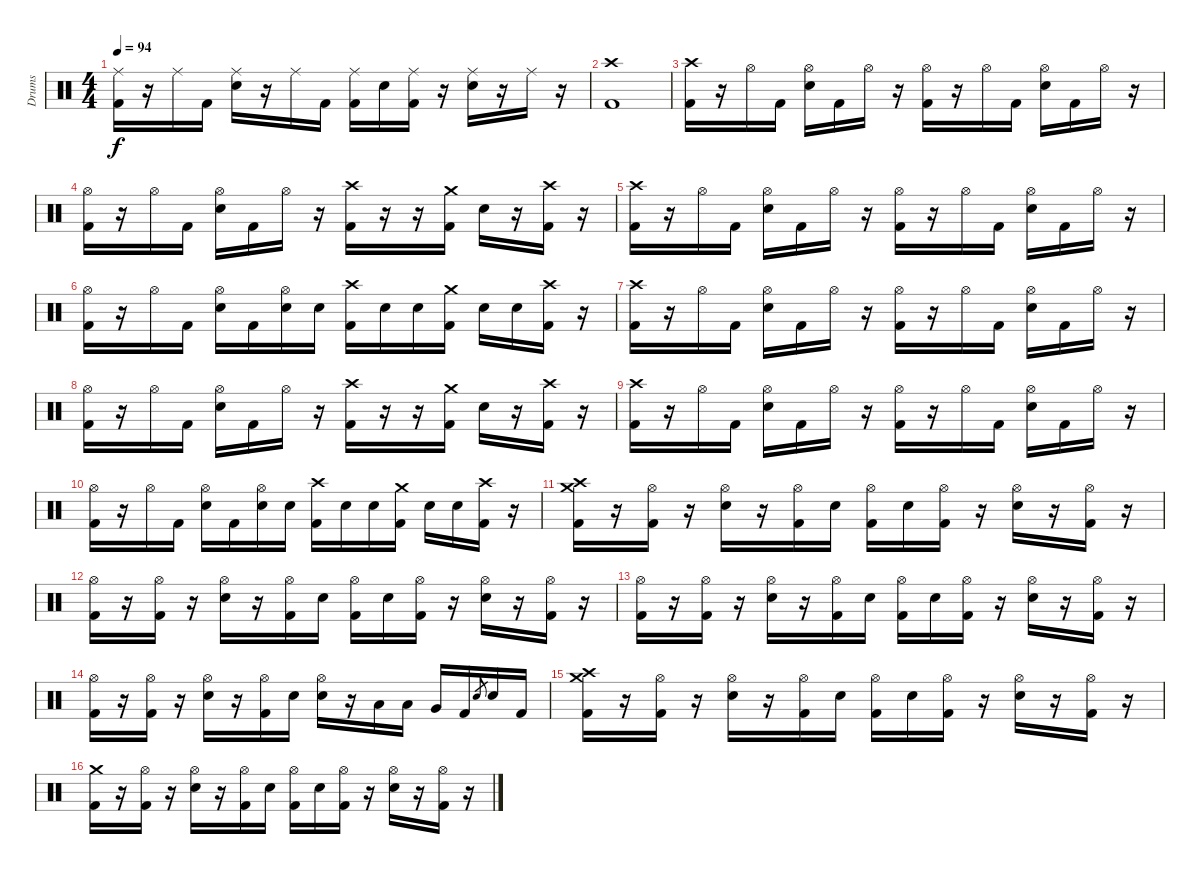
\track ("Drums" "Drums") {instrument percussion}
\staff {score}
\articulation defaults
\ts (4 4)
\tempo 94
\clef neutral
\ks c
("Ride (middle)" "Kick (hit) 2").16{dy f} r.16 "Ride (middle)".16 "Kick (hit) 2".16 ("Ride (middle)" "Snare (hit) 2").16 r.16 "Ride (middle)".16 "Kick (hit) 2".16 ("Ride (middle)" "Kick (hit) 2").16 "Snare (hit) 2".16 ("Ride (middle)" "Kick (hit) 2").16 r.16 ("Ride (middle)" "Snare (hit) 2").16 r.16 "Ride (middle)".16 r.16 |
("Crash high (hit)" "Kick (hit) 2").1 |
("Crash high (hit)" "Kick (hit) 2").16 r.16 "Hi-Hat (open)".16 "Kick (hit) 2".16 ("Hi-Hat (open)" "Snare (hit) 2").16 "Kick (hit) 2".16 "Hi-Hat (open)".16 r.16 ("Hi-Hat (open)" "Kick (hit) 2").16 r.16 "Hi-Hat (open)".16 "Kick (hit) 2".16 ("Hi-Hat (open)" "Snare (hit) 2").16 "Kick (hit) 2".16 "Hi-Hat (open)".16 r.16 |
("Hi-Hat (open)" "Kick (hit) 2").16 r.16 "Hi-Hat (open)".16 "Kick (hit) 2".16 ("Hi-Hat (open)" "Snare (hit) 2").16 "Kick (hit) 2".16 "Hi-Hat (open)".16 r.16 ("Crash high (hit)" "Kick (hit) 2").16 r.16 r.16 ("Crash medium (hit)" "Kick (hit) 2").16 "Snare (hit) 2".16 r.16 ("Crash high (hit)" "Kick (hit) 2").16 r.16 |
("Crash high (hit)" "Kick (hit) 2").16 r.16 "Hi-Hat (open)".16 "Kick (hit) 2".16 ("Hi-Hat (open)" "Snare (hit) 2").16 "Kick (hit) 2".16 "Hi-Hat (open)".16 r.16 ("Hi-Hat (open)" "Kick (hit) 2").16 r.16 "Hi-Hat (open)".16 "Kick (hit) 2".16 ("Hi-Hat (open)" "Snare (hit) 2").16 "Kick (hit) 2".16 "Hi-Hat (open)".16 r.16 |
("Hi-Hat (open)" "Kick (hit) 2").16 r.16 "Hi-Hat (open)".16 "Kick (hit) 2".16 ("Hi-Hat (open)" "Snare (hit) 2").16 "Kick (hit) 2".16 ("Hi-Hat (open)" "Snare (hit) 2").16 "Snare (hit) 2".16 ("Crash high (hit)" "Kick (hit) 2").16 "Snare (hit) 2".16 "Snare (hit) 2".16 ("Crash medium (hit)" "Kick (hit) 2").16 "Snare (hit) 2".16 "Snare (hit) 2".16 ("Crash high (hit)" "Kick (hit) 2").16 r.16 |
("Crash high (hit)" "Kick (hit) 2").16 r.16 "Hi-Hat (open)".16 "Kick (hit) 2".16 ("Hi-Hat (open)" "Snare (hit) 2").16 "Kick (hit) 2".16 "Hi-Hat (open)".16 r.16 ("Hi-Hat (open)" "Kick (hit) 2").16 r.16 "Hi-Hat (open)".16 "Kick (hit) 2".16 ("Hi-Hat (open)" "Snare (hit) 2").16 "Kick (hit) 2".16 "Hi-Hat (open)".16 r.16 |
("Hi-Hat (open)" "Kick (hit) 2").16 r.16 "Hi-Hat (open)".16 "Kick (hit) 2".16 ("Hi-Hat (open)" "Snare (hit) 2").16 "Kick (hit) 2".16 "Hi-Hat (open)".16 r.16 ("Crash high (hit)" "Kick (hit) 2").16 r.16 r.16 ("Crash medium (hit)" "Kick (hit) 2").16 "Snare (hit) 2".16 r.16 ("Crash high (hit)" "Kick (hit) 2").16 r.16 |
("Crash high (hit)" "Kick (hit) 2").16 r.16 "Hi-Hat (open)".16 "Kick (hit) 2".16 ("Hi-Hat (open)" "Snare (hit) 2").16 "Kick (hit) 2".16 "Hi-Hat (open)".16 r.16 ("Hi-Hat (open)" "Kick (hit) 2").16 r.16 "Hi-Hat (open)".16 "Kick (hit) 2".16 ("Hi-Hat (open)" "Snare (hit) 2").16 "Kick (hit) 2".16 "Hi-Hat (open)".16 r.16 |
("Hi-Hat (open)" "Kick (hit) 2").16 r.16 "Hi-Hat (open)".16 "Kick (hit) 2".16 ("Hi-Hat (open)" "Snare (hit) 2").16 "Kick (hit) 2".16 ("Hi-Hat (open)" "Snare (hit) 2").16 "Snare (hit) 2".16 ("Crash high (hit)" "Kick (hit) 2").16 "Snare (hit) 2".16 "Snare (hit) 2".16 ("Crash medium (hit)" "Kick (hit) 2").16 "Snare (hit) 2".16 "Snare (hit) 2".16 ("Crash high (hit)" "Kick (hit) 2").16 r.16 |
("Crash high (hit)" "Crash medium (hit)" "Kick (hit) 2").16 r.16 ("Hi-Hat (open)" "Kick (hit) 2").16 r.16 ("Hi-Hat (open)" "Snare (hit) 2").16 r.16 ("Hi-Hat (open)" "Kick (hit) 2").16 "Snare (hit) 2".16 ("Hi-Hat (open)" "Kick (hit) 2").16 "Snare (hit) 2".16 ("Hi-Hat (open)" "Kick (hit) 2").16 r.16 ("Hi-Hat (open)" "Snare (hit) 2").16 r.16 ("Hi-Hat (open)" "Kick (hit) 2").16 r.16 |
("Hi-Hat (open)" "Kick (hit) 2").16 r.16 ("Hi-Hat (open)" "Kick (hit) 2").16 r.16 ("Hi-Hat (open)" "Snare (hit) 2").16 r.16 ("Hi-Hat (open)" "Kick (hit) 2").16 "Snare (hit) 2".16 ("Hi-Hat (open)" "Kick (hit) 2").16 "Snare (hit) 2".16 ("Hi-Hat (open)" "Kick (hit) 2").16 r.16 ("Hi-Hat (open)" "Snare (hit) 2").16 r.16 ("Hi-Hat (open)" "Kick (hit) 2").16 r.16 |
("Hi-Hat (open)" "Kick (hit) 2").16 r.16 ("Hi-Hat (open)" "Kick (hit) 2").16 r.16 ("Hi-Hat (open)" "Snare (hit) 2").16 r.16 ("Hi-Hat (open)" "Kick (hit) 2").16 "Snare (hit) 2".16 ("Hi-Hat (open)" "Kick (hit) 2").16 "Snare (hit) 2".16 ("Hi-Hat (open)" "Kick (hit) 2").16 r.16 ("Hi-Hat (open)" "Snare (hit) 2").16 r.16 ("Hi-Hat (open)" "Kick (hit) 2").16 r.16 |
("Hi-Hat (open)" "Kick (hit) 2").16 r.16 ("Hi-Hat (open)" "Kick (hit) 2").16 r.16 ("Hi-Hat (open)" "Snare (hit) 2").16 r.16 ("Hi-Hat (open)" "Kick (hit) 2").16 "Snare (hit) 2".16 ("Hi-Hat (open)" "Snare (hit) 2").16 r.16 "Low Tom (hit)".16 "Low Tom (hit)".16 "Very Low Tom (hit)".16 "Kick (hit) 2".16 "Snare (hit) 2".8{gr} "Snare (hit) 2".16 "Kick (hit) 2".16 |
("Crash high (hit)" "Crash medium (hit)" "Kick (hit) 2").16 r.16 ("Hi-Hat (open)" "Kick (hit) 2").16 r.16 ("Hi-Hat (open)" "Snare (hit) 2").16 r.16 ("Hi-Hat (open)" "Kick (hit) 2").16 "Snare (hit) 2".16 ("Hi-Hat (open)" "Kick (hit) 2").16 "Snare (hit) 2".16 ("Hi-Hat (open)" "Kick (hit) 2").16 r.16 ("Hi-Hat (open)" "Snare (hit) 2").16 r.16 ("Hi-Hat (open)" "Kick (hit) 2").16 r.16 |
("Crash medium (hit)" "Kick (hit) 2").16 r.16 ("Hi-Hat (open)" "Kick (hit) 2").16 r.16 ("Hi-Hat (open)" "Snare (hit) 2").16 r.16 ("Hi-Hat (open)" "Kick (hit) 2").16 "Snare (hit) 2".16 ("Hi-Hat (open)" "Kick (hit) 2").16 "Snare (hit) 2".16 ("Hi-Hat (open)" "Kick (hit) 2").16 r.16 ("Hi-Hat (open)" "Snare (hit) 2").16 r.16 ("Hi-Hat (open)" "Kick (hit) 2").16 r.16
